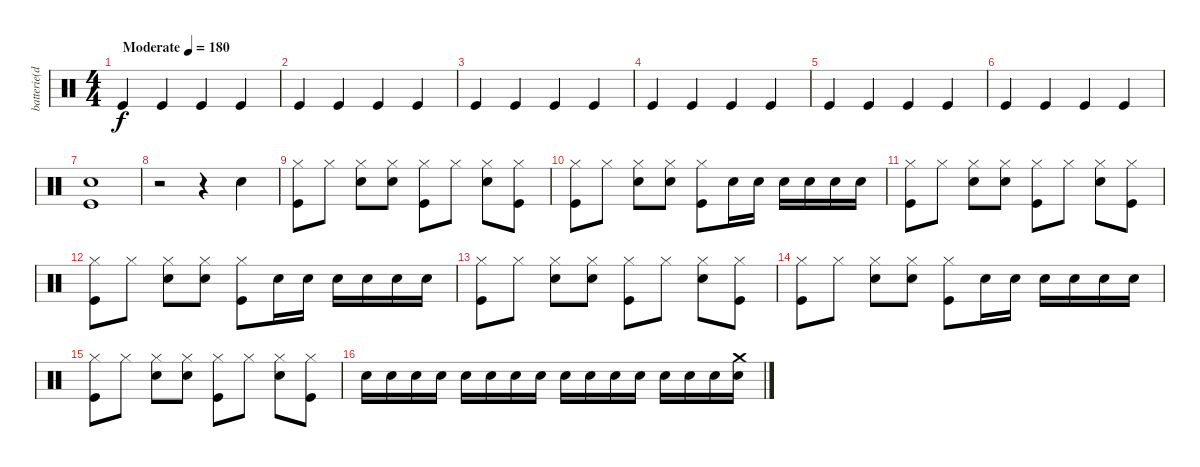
\track ("batterie(dave)" "batterie(d") {instrument percussion}
\staff {score}
\articulation defaults
\ts (4 4)
\tempo (180 "Moderate")
\clef neutral
\ks c "Kick (hit)".4{dy f} "Kick (hit)".4 "Kick (hit)".4 "Kick (hit)".4
|
"Kick (hit)".4 "Kick (hit)".4 "Kick (hit)".4 "Kick (hit)".4 |
"Kick (hit)".4 "Kick (hit)".4 "Kick (hit)".4 "Kick (hit)".4 |
"Kick (hit)".4 "Kick (hit)".4 "Kick (hit)".4 "Kick (hit)".4 |
"Kick (hit)".4 "Kick (hit)".4 "Kick (hit)".4 "Kick (hit)".4 |
"Kick (hit)".4 "Kick (hit)".4 "Kick (hit)".4 "Kick (hit)".4 |
("Snare (hit) 2" "Kick (hit)").1 |
r.2 r.4 "Snare (hit) 2".4 |
("Hi-Hat (closed)" "Kick (hit)").8 "Hi-Hat (closed)".8 ("Hi-Hat (closed)" "Snare (hit) 2").8 ("Hi-Hat (closed)" "Snare (hit) 2").8 ("Hi-Hat (closed)" "Kick (hit)").8 "Hi-Hat (closed)".8 ("Hi-Hat (closed)" "Snare (hit) 2").8 ("Hi-Hat (closed)" "Kick (hit)").8 |
("Hi-Hat (closed)" "Kick (hit)").8 "Hi-Hat (closed)".8 ("Hi-Hat (closed)" "Snare (hit) 2").8 ("Hi-Hat (closed)" "Snare (hit) 2").8 ("Hi-Hat (closed)" "Kick (hit)").8 "Snare (hit) 2".16 "Snare (hit) 2".16 "Snare (hit) 2".16 "Snare (hit) 2".16 "Snare (hit) 2".16 "Snare (hit) 2".16 |
("Hi-Hat (closed)" "Kick (hit)").8 "Hi-Hat (closed)".8 ("Hi-Hat (closed)" "Snare (hit) 2").8 ("Hi-Hat (closed)" "Snare (hit) 2").8 ("Hi-Hat (closed)" "Kick (hit)").8 "Hi-Hat (closed)".8 ("Hi-Hat (closed)" "Snare (hit) 2").8 ("Hi-Hat (closed)" "Kick (hit)").8 |
("Hi-Hat (closed)" "Kick (hit)").8 "Hi-Hat (closed)".8 ("Hi-Hat (closed)" "Snare (hit) 2").8 ("Hi-Hat (closed)" "Snare (hit) 2").8 ("Hi-Hat (closed)" "Kick (hit)").8 "Snare (hit) 2".16 "Snare (hit) 2".16 "Snare (hit) 2".16 "Snare (hit) 2".16 "Snare (hit) 2".16 "Snare (hit) 2".16 |
("Hi-Hat (closed)" "Kick (hit)").8 "Hi-Hat (closed)".8 ("Hi-Hat (closed)" "Snare (hit) 2").8 ("Hi-Hat (closed)" "Snare (hit) 2").8 ("Hi-Hat (closed)" "Kick (hit)").8 "Hi-Hat (closed)".8 ("Hi-Hat (closed)" "Snare (hit) 2").8 ("Hi-Hat (closed)" "Kick (hit)").8 |
("Hi-Hat (closed)" "Kick (hit)").8 "Hi-Hat (closed)".8 ("Hi-Hat (closed)" "Snare (hit) 2").8 ("Hi-Hat (closed)" "Snare (hit) 2").8 ("Hi-Hat (closed)" "Kick (hit)").8 "Snare (hit) 2".16 "Snare (hit) 2".16 "Snare (hit) 2".16 "Snare (hit) 2".16 "Snare (hit) 2".16 "Snare (hit) 2".16 |
("Hi-Hat (closed)" "Kick (hit)").8 "Hi-Hat (closed)".8 ("Hi-Hat (closed)" "Snare (hit) 2").8 ("Hi-Hat (closed)" "Snare (hit) 2").8 ("Hi-Hat (closed)" "Kick (hit)").8 "Hi-Hat (closed)".8 ("Hi-Hat (closed)" "Snare (hit) 2").8 ("Hi-Hat (closed)" "Kick (hit)").8 |
"Snare (hit) 2".16 "Snare (hit) 2".16 "Snare (hit) 2".16 "Snare (hit) 2".16 "Snare (hit) 2".16 "Snare (hit) 2".16 "Snare (hit) 2".16 "Snare (hit) 2".16 "Snare (hit) 2".16 "Snare (hit) 2".16 "Snare (hit) 2".16 "Snare (hit) 2".16 "Snare (hit) 2".16 "Snare (hit) 2".16 "Snare (hit) 2".16 ("Crash medium (hit)" "Snare (hit) 2").16
